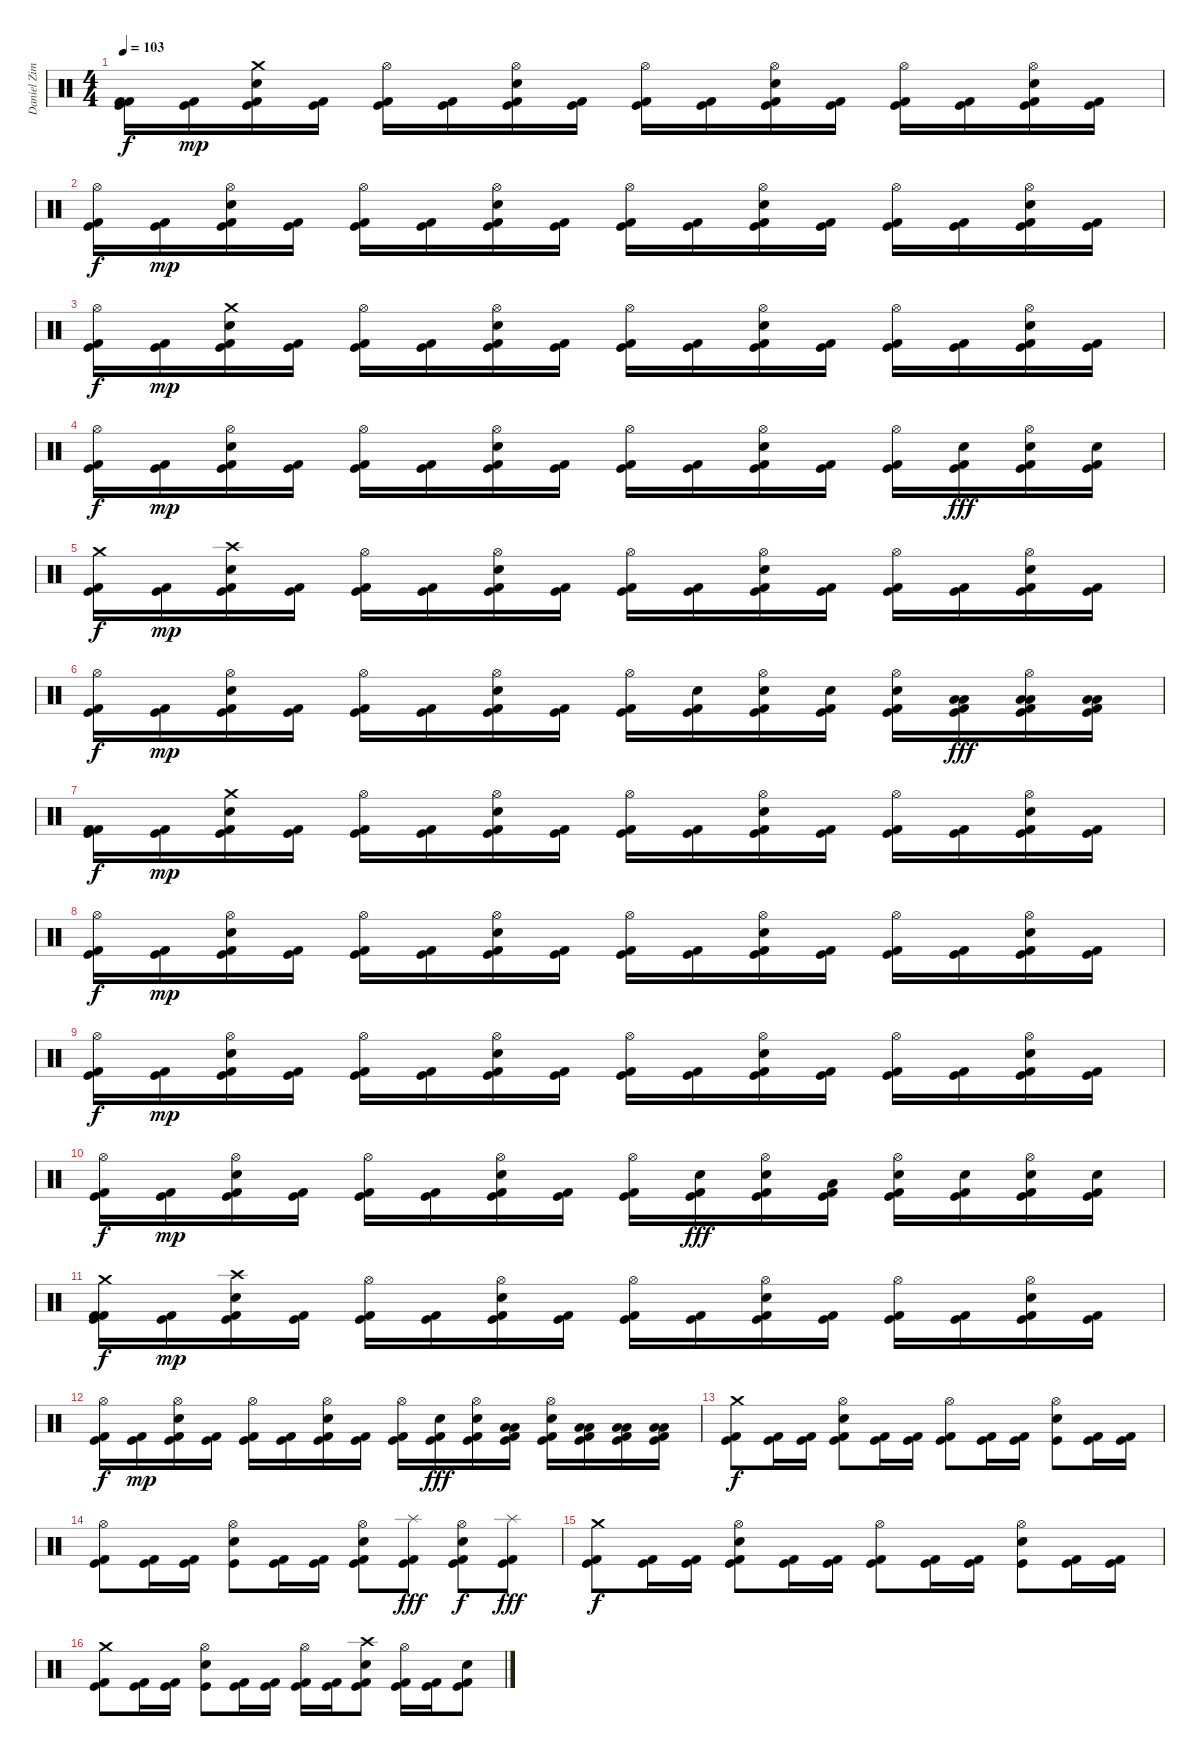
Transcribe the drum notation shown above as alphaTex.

\track ("Daniel Zimmermann - Drums" "Daniel Zim") {instrument percussion}
\staff {score}
\articulation defaults
\ts (4 4)
\tempo 103
\clef neutral
\ks c
("Kick (hit)" "Kick (hit) 2" "Kick (hit) 2").16{dy f} ("Kick (hit)" "Kick (hit) 2").16{dy mp} ("Kick (hit)" "Kick (hit) 2" "Electric Snare (hit)" "Crash medium (hit)").16 ("Kick (hit)" "Kick (hit) 2").16 ("Kick (hit)" "Kick (hit) 2" "Hi-Hat (open)").16 ("Kick (hit)" "Kick (hit) 2").16 ("Kick (hit)" "Kick (hit) 2" "Electric Snare (hit)" "Hi-Hat (open)").16 ("Kick (hit)" "Kick (hit) 2").16 ("Kick (hit)" "Kick (hit) 2" "Hi-Hat (open)").16 ("Kick (hit)" "Kick (hit) 2").16 ("Kick (hit)" "Kick (hit) 2" "Electric Snare (hit)" "Hi-Hat (open)").16 ("Kick (hit)" "Kick (hit) 2").16 ("Kick (hit)" "Kick (hit) 2" "Hi-Hat (open)").16 ("Kick (hit)" "Kick (hit) 2").16 ("Kick (hit)" "Kick (hit) 2" "Electric Snare (hit)" "Hi-Hat (open)").16 ("Kick (hit)" "Kick (hit) 2").16 |
("Kick (hit)" "Kick (hit) 2" "Hi-Hat (open)").16{dy f} ("Kick (hit)" "Kick (hit) 2").16{dy mp} ("Kick (hit)" "Kick (hit) 2" "Electric Snare (hit)" "Hi-Hat (open)").16 ("Kick (hit)" "Kick (hit) 2").16 ("Kick (hit)" "Kick (hit) 2" "Hi-Hat (open)").16 ("Kick (hit)" "Kick (hit) 2").16 ("Kick (hit)" "Kick (hit) 2" "Electric Snare (hit)" "Hi-Hat (open)").16 ("Kick (hit)" "Kick (hit) 2").16 ("Kick (hit)" "Kick (hit) 2" "Hi-Hat (open)").16 ("Kick (hit)" "Kick (hit) 2").16 ("Kick (hit)" "Kick (hit) 2" "Electric Snare (hit)" "Hi-Hat (open)").16 ("Kick (hit)" "Kick (hit) 2").16 ("Kick (hit)" "Kick (hit) 2" "Hi-Hat (open)").16 ("Kick (hit)" "Kick (hit) 2").16 ("Kick (hit)" "Kick (hit) 2" "Electric Snare (hit)" "Hi-Hat (open)").16 ("Kick (hit)" "Kick (hit) 2").16 |
("Kick (hit)" "Kick (hit) 2" "Hi-Hat (open)").16{dy f} ("Kick (hit)" "Kick (hit) 2").16{dy mp} ("Kick (hit)" "Kick (hit) 2" "Electric Snare (hit)" "Crash medium (hit)").16 ("Kick (hit)" "Kick (hit) 2").16 ("Kick (hit)" "Kick (hit) 2" "Hi-Hat (open)").16 ("Kick (hit)" "Kick (hit) 2").16 ("Kick (hit)" "Kick (hit) 2" "Electric Snare (hit)" "Hi-Hat (open)").16 ("Kick (hit)" "Kick (hit) 2").16 ("Kick (hit)" "Kick (hit) 2" "Hi-Hat (open)").16 ("Kick (hit)" "Kick (hit) 2").16 ("Kick (hit)" "Kick (hit) 2" "Electric Snare (hit)" "Hi-Hat (open)").16 ("Kick (hit)" "Kick (hit) 2").16 ("Kick (hit)" "Kick (hit) 2" "Hi-Hat (open)").16 ("Kick (hit)" "Kick (hit) 2").16 ("Kick (hit)" "Kick (hit) 2" "Electric Snare (hit)" "Hi-Hat (open)").16 ("Kick (hit)" "Kick (hit) 2").16 |
("Kick (hit)" "Kick (hit) 2" "Hi-Hat (open)").16{dy f} ("Kick (hit)" "Kick (hit) 2").16{dy mp} ("Kick (hit)" "Kick (hit) 2" "Electric Snare (hit)" "Hi-Hat (open)").16 ("Kick (hit)" "Kick (hit) 2").16 ("Kick (hit)" "Kick (hit) 2" "Hi-Hat (open)").16 ("Kick (hit)" "Kick (hit) 2").16 ("Kick (hit)" "Kick (hit) 2" "Electric Snare (hit)" "Hi-Hat (open)").16 ("Kick (hit)" "Kick (hit) 2").16 ("Kick (hit)" "Kick (hit) 2" "Hi-Hat (open)").16 ("Kick (hit)" "Kick (hit) 2").16 ("Kick (hit)" "Kick (hit) 2" "Electric Snare (hit)" "Hi-Hat (open)").16 ("Kick (hit)" "Kick (hit) 2").16 ("Kick (hit)" "Kick (hit) 2" "Hi-Hat (open)").16 ("Kick (hit)" "Kick (hit) 2" "Electric Snare (hit)").16{dy fff} ("Kick (hit)" "Kick (hit) 2" "Electric Snare (hit)" "Hi-Hat (open)").16 ("Kick (hit)" "Kick (hit) 2" "Electric Snare (hit)").16 |
("Kick (hit)" "Kick (hit) 2" "Crash medium (hit)").16{dy f} ("Kick (hit)" "Kick (hit) 2").16{dy mp} ("Kick (hit)" "Kick (hit) 2" "Electric Snare (hit)" "Crash high (hit)").16 ("Kick (hit)" "Kick (hit) 2").16 ("Kick (hit)" "Kick (hit) 2" "Hi-Hat (open)").16 ("Kick (hit)" "Kick (hit) 2").16 ("Kick (hit)" "Kick (hit) 2" "Electric Snare (hit)" "Hi-Hat (open)").16 ("Kick (hit)" "Kick (hit) 2").16 ("Kick (hit)" "Kick (hit) 2" "Hi-Hat (open)").16 ("Kick (hit)" "Kick (hit) 2").16 ("Kick (hit)" "Kick (hit) 2" "Electric Snare (hit)" "Hi-Hat (open)").16 ("Kick (hit)" "Kick (hit) 2").16 ("Kick (hit)" "Kick (hit) 2" "Hi-Hat (open)").16 ("Kick (hit)" "Kick (hit) 2").16 ("Kick (hit)" "Kick (hit) 2" "Electric Snare (hit)" "Hi-Hat (open)").16 ("Kick (hit)" "Kick (hit) 2").16 |
("Kick (hit)" "Kick (hit) 2" "Hi-Hat (open)").16{dy f} ("Kick (hit)" "Kick (hit) 2").16{dy mp} ("Kick (hit)" "Kick (hit) 2" "Electric Snare (hit)" "Hi-Hat (open)").16 ("Kick (hit)" "Kick (hit) 2").16 ("Kick (hit)" "Kick (hit) 2" "Hi-Hat (open)").16 ("Kick (hit)" "Kick (hit) 2").16 ("Kick (hit)" "Kick (hit) 2" "Electric Snare (hit)" "Hi-Hat (open)").16 ("Kick (hit)" "Kick (hit) 2").16 ("Kick (hit)" "Kick (hit) 2" "Hi-Hat (open)").16 ("Kick (hit)" "Kick (hit) 2" "Electric Snare (hit)").16 ("Kick (hit)" "Kick (hit) 2" "Electric Snare (hit)" "Hi-Hat (open)").16 ("Kick (hit)" "Kick (hit) 2" "Electric Snare (hit)").16 ("Kick (hit)" "Kick (hit) 2" "Electric Snare (hit)" "Hi-Hat (open)").16 ("Kick (hit)" "Kick (hit) 2" "Low Tom (hit)" "Low Tom (hit)").16{dy fff} ("Kick (hit)" "Kick (hit) 2" "Low Tom (hit)" "Hi-Hat (open)" "Low Tom (hit)").16 ("Kick (hit)" "Kick (hit) 2" "Low Tom (hit)" "Low Tom (hit)").16 |
("Kick (hit)" "Kick (hit) 2" "Kick (hit) 2").16{dy f} ("Kick (hit)" "Kick (hit) 2").16{dy mp} ("Kick (hit)" "Kick (hit) 2" "Electric Snare (hit)" "Crash medium (hit)").16 ("Kick (hit)" "Kick (hit) 2").16 ("Kick (hit)" "Kick (hit) 2" "Hi-Hat (open)").16 ("Kick (hit)" "Kick (hit) 2").16 ("Kick (hit)" "Kick (hit) 2" "Electric Snare (hit)" "Hi-Hat (open)").16 ("Kick (hit)" "Kick (hit) 2").16 ("Kick (hit)" "Kick (hit) 2" "Hi-Hat (open)").16 ("Kick (hit)" "Kick (hit) 2").16 ("Kick (hit)" "Kick (hit) 2" "Electric Snare (hit)" "Hi-Hat (open)").16 ("Kick (hit)" "Kick (hit) 2").16 ("Kick (hit)" "Kick (hit) 2" "Hi-Hat (open)").16 ("Kick (hit)" "Kick (hit) 2").16 ("Kick (hit)" "Kick (hit) 2" "Electric Snare (hit)" "Hi-Hat (open)").16 ("Kick (hit)" "Kick (hit) 2").16 |
("Kick (hit)" "Kick (hit) 2" "Hi-Hat (open)").16{dy f} ("Kick (hit)" "Kick (hit) 2").16{dy mp} ("Kick (hit)" "Kick (hit) 2" "Electric Snare (hit)" "Hi-Hat (open)").16 ("Kick (hit)" "Kick (hit) 2").16 ("Kick (hit)" "Kick (hit) 2" "Hi-Hat (open)").16 ("Kick (hit)" "Kick (hit) 2").16 ("Kick (hit)" "Kick (hit) 2" "Electric Snare (hit)" "Hi-Hat (open)").16 ("Kick (hit)" "Kick (hit) 2").16 ("Kick (hit)" "Kick (hit) 2" "Hi-Hat (open)").16 ("Kick (hit)" "Kick (hit) 2").16 ("Kick (hit)" "Kick (hit) 2" "Electric Snare (hit)" "Hi-Hat (open)").16 ("Kick (hit)" "Kick (hit) 2").16 ("Kick (hit)" "Kick (hit) 2" "Hi-Hat (open)").16 ("Kick (hit)" "Kick (hit) 2").16 ("Kick (hit)" "Kick (hit) 2" "Electric Snare (hit)" "Hi-Hat (open)").16 ("Kick (hit)" "Kick (hit) 2").16 |
("Kick (hit)" "Kick (hit) 2" "Hi-Hat (open)").16{dy f} ("Kick (hit)" "Kick (hit) 2").16{dy mp} ("Kick (hit)" "Kick (hit) 2" "Electric Snare (hit)" "Hi-Hat (open)").16 ("Kick (hit)" "Kick (hit) 2").16 ("Kick (hit)" "Kick (hit) 2" "Hi-Hat (open)").16 ("Kick (hit)" "Kick (hit) 2").16 ("Kick (hit)" "Kick (hit) 2" "Electric Snare (hit)" "Hi-Hat (open)").16 ("Kick (hit)" "Kick (hit) 2").16 ("Kick (hit)" "Kick (hit) 2" "Hi-Hat (open)").16 ("Kick (hit)" "Kick (hit) 2").16 ("Kick (hit)" "Kick (hit) 2" "Electric Snare (hit)" "Hi-Hat (open)").16 ("Kick (hit)" "Kick (hit) 2").16 ("Kick (hit)" "Kick (hit) 2" "Hi-Hat (open)").16 ("Kick (hit)" "Kick (hit) 2").16 ("Kick (hit)" "Kick (hit) 2" "Electric Snare (hit)" "Hi-Hat (open)").16 ("Kick (hit)" "Kick (hit) 2").16 |
("Kick (hit)" "Kick (hit) 2" "Hi-Hat (open)").16{dy f} ("Kick (hit)" "Kick (hit) 2").16{dy mp} ("Kick (hit)" "Kick (hit) 2" "Electric Snare (hit)" "Hi-Hat (open)").16 ("Kick (hit)" "Kick (hit) 2").16 ("Kick (hit)" "Kick (hit) 2" "Hi-Hat (open)").16 ("Kick (hit)" "Kick (hit) 2").16 ("Kick (hit)" "Kick (hit) 2" "Electric Snare (hit)" "Hi-Hat (open)").16 ("Kick (hit)" "Kick (hit) 2").16 ("Kick (hit)" "Kick (hit) 2" "Hi-Hat (open)").16 ("Kick (hit)" "Kick (hit) 2" "Electric Snare (hit)").16{dy fff} ("Kick (hit)" "Kick (hit) 2" "Electric Snare (hit)" "Hi-Hat (open)").16 ("Kick (hit)" "Kick (hit) 2" "Low Tom (hit)").16 ("Kick (hit)" "Kick (hit) 2" "Electric Snare (hit)" "Hi-Hat (open)").16 ("Kick (hit)" "Kick (hit) 2" "Electric Snare (hit)").16 ("Kick (hit)" "Kick (hit) 2" "Electric Snare (hit)" "Hi-Hat (open)").16 ("Kick (hit)" "Kick (hit) 2" "Electric Snare (hit)").16 |
("Kick (hit)" "Kick (hit) 2" "Kick (hit) 2" "Crash medium (hit)").16{dy f} ("Kick (hit)" "Kick (hit) 2").16{dy mp} ("Kick (hit)" "Kick (hit) 2" "Electric Snare (hit)" "Crash high (hit)").16 ("Kick (hit)" "Kick (hit) 2").16 ("Kick (hit)" "Kick (hit) 2" "Hi-Hat (open)").16 ("Kick (hit)" "Kick (hit) 2").16 ("Kick (hit)" "Kick (hit) 2" "Electric Snare (hit)" "Hi-Hat (open)").16 ("Kick (hit)" "Kick (hit) 2").16 ("Kick (hit)" "Kick (hit) 2" "Hi-Hat (open)").16 ("Kick (hit)" "Kick (hit) 2").16 ("Kick (hit)" "Kick (hit) 2" "Electric Snare (hit)" "Hi-Hat (open)").16 ("Kick (hit)" "Kick (hit) 2").16 ("Kick (hit)" "Kick (hit) 2" "Hi-Hat (open)").16 ("Kick (hit)" "Kick (hit) 2").16 ("Kick (hit)" "Kick (hit) 2" "Electric Snare (hit)" "Hi-Hat (open)").16 ("Kick (hit)" "Kick (hit) 2").16 |
("Kick (hit)" "Kick (hit) 2" "Hi-Hat (open)").16{dy f} ("Kick (hit)" "Kick (hit) 2").16{dy mp} ("Kick (hit)" "Kick (hit) 2" "Electric Snare (hit)" "Hi-Hat (open)").16 ("Kick (hit)" "Kick (hit) 2").16 ("Kick (hit)" "Kick (hit) 2" "Hi-Hat (open)").16 ("Kick (hit)" "Kick (hit) 2").16 ("Kick (hit)" "Kick (hit) 2" "Electric Snare (hit)" "Hi-Hat (open)").16 ("Kick (hit)" "Kick (hit) 2").16 ("Kick (hit)" "Kick (hit) 2" "Hi-Hat (open)").16 ("Kick (hit)" "Kick (hit) 2" "Electric Snare (hit)").16{dy fff} ("Kick (hit)" "Kick (hit) 2" "Electric Snare (hit)" "Hi-Hat (open)").16 ("Kick (hit)" "Kick (hit) 2" "Low Tom (hit)" "Low Tom (hit)").16 ("Kick (hit)" "Kick (hit) 2" "Electric Snare (hit)" "Hi-Hat (open)").16 ("Kick (hit)" "Kick (hit) 2" "Low Tom (hit)" "Low Tom (hit)").16 ("Kick (hit)" "Kick (hit) 2" "Low Tom (hit)" "Low Tom (hit)").16 ("Kick (hit)" "Kick (hit) 2" "Low Tom (hit)" "Low Tom (hit)").16 |
("Kick (hit)" "Kick (hit) 2" "Crash medium (hit)").8{dy f} ("Kick (hit)" "Kick (hit) 2").16 ("Kick (hit)" "Kick (hit) 2").16 ("Kick (hit)" "Kick (hit) 2" "Electric Snare (hit)" "Hi-Hat (open)").8 ("Kick (hit)" "Kick (hit) 2").16 ("Kick (hit)" "Kick (hit) 2").16 ("Kick (hit)" "Kick (hit) 2" "Hi-Hat (open)").8 ("Kick (hit)" "Kick (hit) 2").16 ("Kick (hit)" "Kick (hit) 2").16 ("Kick (hit)" "Electric Snare (hit)" "Hi-Hat (open)").8 ("Kick (hit)" "Kick (hit) 2").16 ("Kick (hit)" "Kick (hit) 2").16 |
("Kick (hit)" "Kick (hit) 2" "Hi-Hat (open)").8 ("Kick (hit)" "Kick (hit) 2").16 ("Kick (hit)" "Kick (hit) 2").16 ("Kick (hit)" "Electric Snare (hit)" "Hi-Hat (open)").8 ("Kick (hit)" "Kick (hit) 2").16 ("Kick (hit)" "Kick (hit) 2").16 ("Kick (hit)" "Kick (hit) 2" "Electric Snare (hit)" "Hi-Hat (open)").8 ("Kick (hit)" "Kick (hit) 2" "Splash (hit)").8{dy fff} ("Kick (hit)" "Kick (hit) 2" "Electric Snare (hit)" "Hi-Hat (open)").8{dy f} ("Kick (hit)" "Kick (hit) 2" "Splash (hit)").8{dy fff} |
("Kick (hit)" "Kick (hit) 2" "Crash medium (hit)").8{dy f} ("Kick (hit)" "Kick (hit) 2").16 ("Kick (hit)" "Kick (hit) 2").16 ("Kick (hit)" "Kick (hit) 2" "Electric Snare (hit)" "Hi-Hat (open)").8 ("Kick (hit)" "Kick (hit) 2").16 ("Kick (hit)" "Kick (hit) 2").16 ("Kick (hit)" "Kick (hit) 2" "Hi-Hat (open)").8 ("Kick (hit)" "Kick (hit) 2").16 ("Kick (hit)" "Kick (hit) 2").16 ("Kick (hit)" "Electric Snare (hit)" "Hi-Hat (open)").8 ("Kick (hit)" "Kick (hit) 2").16 ("Kick (hit)" "Kick (hit) 2").16 |
("Kick (hit)" "Kick (hit) 2" "Crash medium (hit)").8 ("Kick (hit)" "Kick (hit) 2").16 ("Kick (hit)" "Kick (hit) 2").16 ("Kick (hit)" "Electric Snare (hit)" "Hi-Hat (open)").8 ("Kick (hit)" "Kick (hit) 2").16 ("Kick (hit)" "Kick (hit) 2").16 ("Kick (hit)" "Kick (hit) 2" "Hi-Hat (open)").16 ("Kick (hit)" "Kick (hit) 2").16 ("Kick (hit)" "Kick (hit) 2" "Electric Snare (hit)" "Crash high (hit)").8 ("Kick (hit)" "Kick (hit) 2" "Hi-Hat (open)").16 ("Kick (hit)" "Kick (hit) 2").16 ("Kick (hit)" "Kick (hit) 2" "Electric Snare (hit)").8
